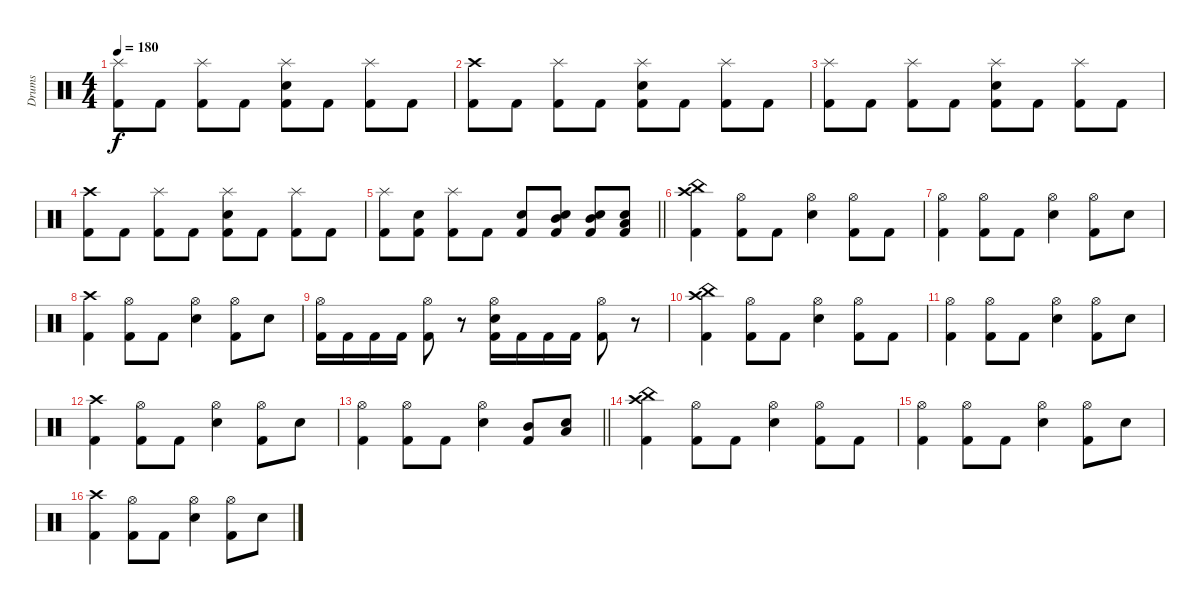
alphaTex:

\track ("Drums" "Drums") {instrument percussion}
\staff {score}
\articulation defaults
\ts (4 4)
\tempo 180
\clef neutral
\ks c
("Splash (hit)" "Kick (hit) 2").8{dy f} "Kick (hit) 2".8 ("Splash (hit)" "Kick (hit) 2").8 "Kick (hit) 2".8 ("Splash (hit)" "Electric Snare (hit)" "Kick (hit) 2").8 "Kick (hit) 2".8 ("Splash (hit)" "Kick (hit) 2").8 "Kick (hit) 2".8 |
("Crash high (hit)" "Kick (hit) 2").8 "Kick (hit) 2".8 ("Splash (hit)" "Kick (hit) 2").8 "Kick (hit) 2".8 ("Splash (hit)" "Electric Snare (hit)" "Kick (hit) 2").8 "Kick (hit) 2".8 ("Splash (hit)" "Kick (hit) 2").8 "Kick (hit) 2".8 |
("Splash (hit)" "Kick (hit) 2").8 "Kick (hit) 2".8 ("Splash (hit)" "Kick (hit) 2").8 "Kick (hit) 2".8 ("Splash (hit)" "Electric Snare (hit)" "Kick (hit) 2").8 "Kick (hit) 2".8 ("Splash (hit)" "Kick (hit) 2").8 "Kick (hit) 2".8 |
("Crash high (hit)" "Kick (hit) 2").8 "Kick (hit) 2".8 ("Splash (hit)" "Kick (hit) 2").8 "Kick (hit) 2".8 ("Splash (hit)" "Electric Snare (hit)" "Kick (hit) 2").8 "Kick (hit) 2".8 ("Splash (hit)" "Kick (hit) 2").8 "Kick (hit) 2".8 |
\barLineRight lightlight
("Splash (hit)" "Kick (hit) 2").8 ("Electric Snare (hit)" "Kick (hit) 2").8 ("Splash (hit)" "Kick (hit) 2").8 "Kick (hit) 2".8 ("Electric Snare (hit)" "Kick (hit) 2").8 ("Mid Tom (hit)" "Electric Snare (hit)" "Kick (hit) 2").8 ("Mid Tom (hit)" "Electric Snare (hit)" "Kick (hit) 2").8 ("Low Tom (hit)" "Electric Snare (hit)" "Kick (hit) 2").8 |
\section ("" "")
("Crash high (hit)" "China (hit)" "Kick (hit) 2").4 ("Hi-Hat (open)" "Kick (hit) 2").8 "Kick (hit) 2".8 ("Hi-Hat (open)" "Electric Snare (hit)").4 ("Hi-Hat (open)" "Kick (hit) 2").8 "Kick (hit) 2".8 |
("Hi-Hat (open)" "Kick (hit) 2").4 ("Hi-Hat (open)" "Kick (hit) 2").8 "Kick (hit) 2".8 ("Hi-Hat (open)" "Electric Snare (hit)").4 ("Hi-Hat (open)" "Kick (hit) 2").8 "Electric Snare (hit)".8 |
("Crash high (hit)" "Kick (hit) 2").4 ("Hi-Hat (open)" "Kick (hit) 2").8 "Kick (hit) 2".8 ("Hi-Hat (open)" "Electric Snare (hit)").4 ("Hi-Hat (open)" "Kick (hit) 2").8 "Electric Snare (hit)".8 |
("Hi-Hat (open)" "Kick (hit) 2").16 "Kick (hit) 2".16 "Kick (hit) 2".16 "Kick (hit) 2".16 ("Hi-Hat (open)" "Kick (hit) 2").8 r.8 ("Hi-Hat (open)" "Electric Snare (hit)" "Kick (hit) 2").16 "Kick (hit) 2".16 "Kick (hit) 2".16 "Kick (hit) 2".16 ("Hi-Hat (open)" "Kick (hit) 2").8 r.8 |
("Crash high (hit)" "China (hit)" "Kick (hit) 2").4 ("Hi-Hat (open)" "Kick (hit) 2").8 "Kick (hit) 2".8 ("Hi-Hat (open)" "Electric Snare (hit)").4 ("Hi-Hat (open)" "Kick (hit) 2").8 "Kick (hit) 2".8 |
("Hi-Hat (open)" "Kick (hit) 2").4 ("Hi-Hat (open)" "Kick (hit) 2").8 "Kick (hit) 2".8 ("Hi-Hat (open)" "Electric Snare (hit)").4 ("Hi-Hat (open)" "Kick (hit) 2").8 "Electric Snare (hit)".8 |
("Crash high (hit)" "Kick (hit) 2").4 ("Hi-Hat (open)" "Kick (hit) 2").8 "Kick (hit) 2".8 ("Hi-Hat (open)" "Electric Snare (hit)").4 ("Hi-Hat (open)" "Kick (hit) 2").8 "Electric Snare (hit)".8 |
\barLineRight lightlight
("Hi-Hat (open)" "Kick (hit) 2").4 ("Hi-Hat (open)" "Kick (hit) 2").8 "Kick (hit) 2".8 ("Hi-Hat (open)" "Electric Snare (hit)").4 ("Mid Tom (hit)" "Kick (hit) 2").8 ("Low Tom (hit)" "Electric Snare (hit)").8 |
("Crash high (hit)" "China (hit)" "Kick (hit) 2").4 ("Hi-Hat (open)" "Kick (hit) 2").8 "Kick (hit) 2".8 ("Hi-Hat (open)" "Electric Snare (hit)").4 ("Hi-Hat (open)" "Kick (hit) 2").8 "Kick (hit) 2".8 |
("Hi-Hat (open)" "Kick (hit) 2").4 ("Hi-Hat (open)" "Kick (hit) 2").8 "Kick (hit) 2".8 ("Hi-Hat (open)" "Electric Snare (hit)").4 ("Hi-Hat (open)" "Kick (hit) 2").8 "Electric Snare (hit)".8 |
("Crash high (hit)" "Kick (hit) 2").4 ("Hi-Hat (open)" "Kick (hit) 2").8 "Kick (hit) 2".8 ("Hi-Hat (open)" "Electric Snare (hit)").4 ("Hi-Hat (open)" "Kick (hit) 2").8 "Electric Snare (hit)".8
